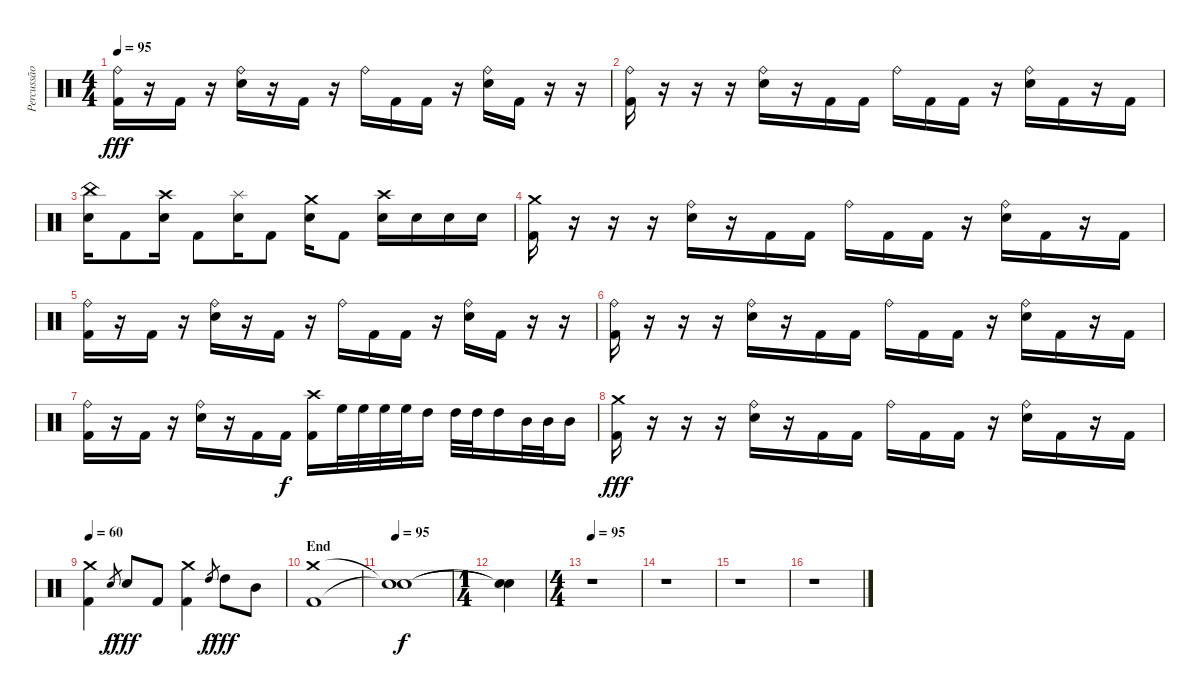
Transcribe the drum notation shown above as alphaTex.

\track ("Percussão" "Percussão") {instrument percussion}
\staff {score}
\articulation defaults
\ts (4 4)
\tempo 95
\clef neutral
\ks c
("Ride (bell)" "Kick (hit) 2").16{dy fff} r.16 "Kick (hit) 2".16 r.16 ("Ride (bell)" "Electric Snare (hit)").16 r.16 "Kick (hit) 2".16 r.16 "Ride (bell)".16 "Kick (hit) 2".16 "Kick (hit) 2".16 r.16 ("Ride (bell)" "Electric Snare (hit)").16 "Kick (hit) 2".16 r.16 r.16 |
("Ride (bell)" "Kick (hit) 2").16 r.16 r.16 r.16 ("Ride (bell)" "Electric Snare (hit)").16 r.16 "Kick (hit) 2".16 "Kick (hit) 2".16 "Ride (bell)".16 "Kick (hit) 2".16 "Kick (hit) 2".16 r.16 ("Ride (bell)" "Electric Snare (hit)").16 "Kick (hit) 2".16 r.16 "Kick (hit) 2".16 |
("China (hit)" "Electric Snare (hit)").16 "Kick (hit) 2".8 ("Crash high (hit)" "Electric Snare (hit)").16 "Kick (hit) 2".8 ("Splash (hit)" "Electric Snare (hit)").16 "Kick (hit) 2".8 ("Crash medium (hit)" "Electric Snare (hit)").16 "Kick (hit) 2".8 ("Crash high (hit)" "Electric Snare (hit)").16 "Electric Snare (hit)".16 "Electric Snare (hit)".16 "Electric Snare (hit)".16 |
("Crash medium (hit)" "Kick (hit) 2").16 r.16 r.16 r.16 ("Ride (bell)" "Electric Snare (hit)").16 r.16 "Kick (hit) 2".16 "Kick (hit) 2".16 "Ride (bell)".16 "Kick (hit) 2".16 "Kick (hit) 2".16 r.16 ("Ride (bell)" "Electric Snare (hit)").16 "Kick (hit) 2".16 r.16 "Kick (hit) 2".16 |
("Ride (bell)" "Kick (hit) 2").16 r.16 "Kick (hit) 2".16 r.16 ("Ride (bell)" "Electric Snare (hit)").16 r.16 "Kick (hit) 2".16 r.16 "Ride (bell)".16 "Kick (hit) 2".16 "Kick (hit) 2".16 r.16 ("Ride (bell)" "Electric Snare (hit)").16 "Kick (hit) 2".16 r.16 r.16 |
("Ride (bell)" "Kick (hit) 2").16 r.16 r.16 r.16 ("Ride (bell)" "Electric Snare (hit)").16 r.16 "Kick (hit) 2".16 "Kick (hit) 2".16 "Ride (bell)".16 "Kick (hit) 2".16 "Kick (hit) 2".16 r.16 ("Ride (bell)" "Electric Snare (hit)").16 "Kick (hit) 2".16 r.16 "Kick (hit) 2".16 |
("Ride (bell)" "Kick (hit) 2").16 r.16 "Kick (hit) 2".16 r.16 ("Ride (bell)" "Electric Snare (hit)").16 r.16 "Kick (hit) 2".16 "Kick (hit) 2".16{dy f} ("Crash high (hit)" "Kick (hit) 2").16 "High Floor Tom (hit)".32 "High Floor Tom (hit)".32 "High Floor Tom (hit)".32 "High Floor Tom (hit)".32 "High Tom (hit)".16 "High Tom (hit)".32 "High Tom (hit)".32 "High Tom (hit)".16 "Mid Tom (hit)".32 "Mid Tom (hit)".32 "Mid Tom (hit)".16 |
("Crash medium (hit)" "Kick (hit) 2").16{dy fff} r.16 r.16 r.16 ("Ride (bell)" "Electric Snare (hit)").16 r.16 "Kick (hit) 2".16 "Kick (hit) 2".16 "Ride (bell)".16 "Kick (hit) 2".16 "Kick (hit) 2".16 r.16 ("Ride (bell)" "Electric Snare (hit)").16 "Kick (hit) 2".16 r.16 "Kick (hit) 2".16 |
\tempo 60
("Crash medium (hit)" "Kick (hit) 2").4 "Electric Snare (hit)".8{gr dy f} "Electric Snare (hit)".8{dy fff} "Kick (hit) 2".8 ("Crash medium (hit)" "Kick (hit) 2").4 "High Tom (hit)".8{gr dy f} "High Tom (hit)".8{dy fff} "Mid Tom (hit)".8 |
\section ("" "End")
("Crash medium (hit)" "Kick (hit) 2").1 |
\tempo 95
("Snare (hit)"{t} "Snare (hit)"{t}).1{dy f} |
\ts (1 4)
("Snare (hit)"{t} "Snare (hit)"{t}).4 |
\ts (4 4)
\tempo 95
r.1 |
r.1 |
r.1 |
r.1
